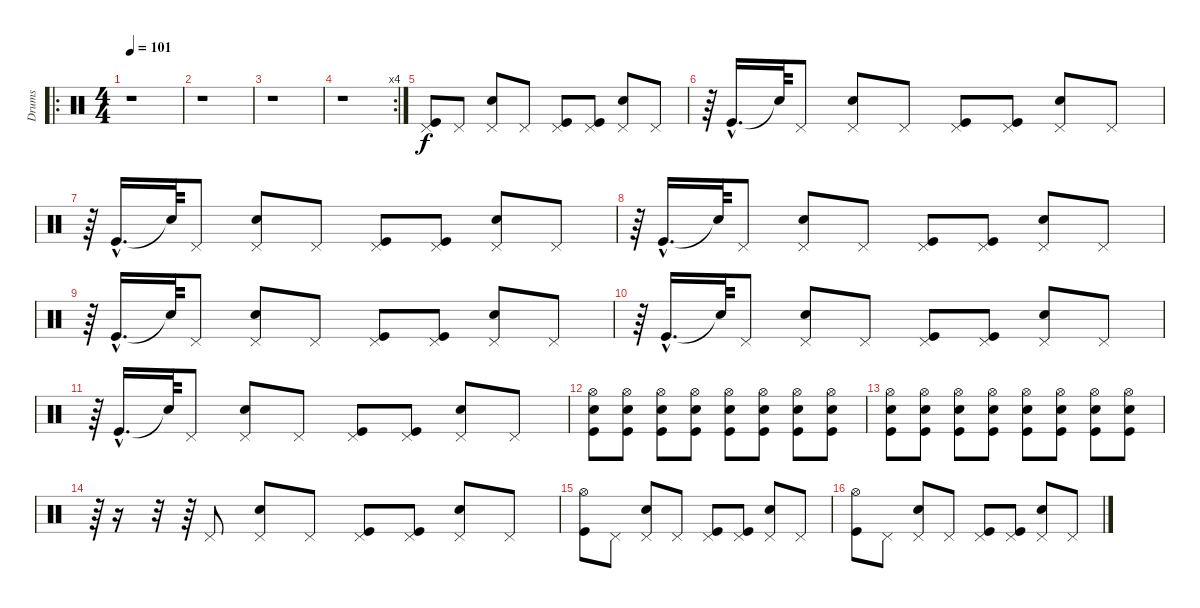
\track ("Drums" "Drums") {instrument percussion}
\staff {score}
\articulation defaults
\ro
\ts (4 4)
\tempo 101
\clef neutral
\ks c
r.1{dy f} |
r.1 |
r.1 |
\rc 4
r.1 |
("Kick (hit)" "Pedal Hi-Hat (hit)").8 "Pedal Hi-Hat (hit)".8 ("Electric Snare (hit)" "Pedal Hi-Hat (hit)").8 "Pedal Hi-Hat (hit)".8 ("Kick (hit)" "Pedal Hi-Hat (hit)").8 ("Kick (hit)" "Pedal Hi-Hat (hit)").8 ("Electric Snare (hit)" "Pedal Hi-Hat (hit)").8 "Pedal Hi-Hat (hit)".8 |
r.64 "Kick (hit)"{hac}.16{d} "Snare (hit)"{t}.64 "Pedal Hi-Hat (hit)".8 ("Electric Snare (hit)" "Pedal Hi-Hat (hit)").8 "Pedal Hi-Hat (hit)".8 ("Kick (hit)" "Pedal Hi-Hat (hit)").8 ("Kick (hit)" "Pedal Hi-Hat (hit)").8 ("Electric Snare (hit)" "Pedal Hi-Hat (hit)").8 "Pedal Hi-Hat (hit)".8 |
r.64 "Kick (hit)"{hac}.16{d} "Snare (hit)"{t}.64 "Pedal Hi-Hat (hit)".8 ("Electric Snare (hit)" "Pedal Hi-Hat (hit)").8 "Pedal Hi-Hat (hit)".8 ("Kick (hit)" "Pedal Hi-Hat (hit)").8 ("Kick (hit)" "Pedal Hi-Hat (hit)").8 ("Electric Snare (hit)" "Pedal Hi-Hat (hit)").8 "Pedal Hi-Hat (hit)".8 |
r.64 "Kick (hit)"{hac}.16{d} "Snare (hit)"{t}.64 "Pedal Hi-Hat (hit)".8 ("Electric Snare (hit)" "Pedal Hi-Hat (hit)").8 "Pedal Hi-Hat (hit)".8 ("Kick (hit)" "Pedal Hi-Hat (hit)").8 ("Kick (hit)" "Pedal Hi-Hat (hit)").8 ("Electric Snare (hit)" "Pedal Hi-Hat (hit)").8 "Pedal Hi-Hat (hit)".8 |
r.64 "Kick (hit)"{hac}.16{d} "Snare (hit)"{t}.64 "Pedal Hi-Hat (hit)".8 ("Electric Snare (hit)" "Pedal Hi-Hat (hit)").8 "Pedal Hi-Hat (hit)".8 ("Kick (hit)" "Pedal Hi-Hat (hit)").8 ("Kick (hit)" "Pedal Hi-Hat (hit)").8 ("Electric Snare (hit)" "Pedal Hi-Hat (hit)").8 "Pedal Hi-Hat (hit)".8 |
r.64 "Kick (hit)"{hac}.16{d} "Snare (hit)"{t}.64 "Pedal Hi-Hat (hit)".8 ("Electric Snare (hit)" "Pedal Hi-Hat (hit)").8 "Pedal Hi-Hat (hit)".8 ("Kick (hit)" "Pedal Hi-Hat (hit)").8 ("Kick (hit)" "Pedal Hi-Hat (hit)").8 ("Electric Snare (hit)" "Pedal Hi-Hat (hit)").8 "Pedal Hi-Hat (hit)".8 |
r.64 "Kick (hit)"{hac}.16{d} "Snare (hit)"{t}.64 "Pedal Hi-Hat (hit)".8 ("Electric Snare (hit)" "Pedal Hi-Hat (hit)").8 "Pedal Hi-Hat (hit)".8 ("Kick (hit)" "Pedal Hi-Hat (hit)").8 ("Kick (hit)" "Pedal Hi-Hat (hit)").8 ("Electric Snare (hit)" "Pedal Hi-Hat (hit)").8 "Pedal Hi-Hat (hit)".8 |
("Kick (hit)" "Electric Snare (hit)" "Hi-Hat (open)").8 ("Kick (hit)" "Electric Snare (hit)" "Hi-Hat (open)").8 ("Kick (hit)" "Electric Snare (hit)" "Hi-Hat (open)").8 ("Kick (hit)" "Electric Snare (hit)" "Hi-Hat (open)").8 ("Kick (hit)" "Electric Snare (hit)" "Hi-Hat (open)").8 ("Kick (hit)" "Electric Snare (hit)" "Hi-Hat (open)").8 ("Kick (hit)" "Electric Snare (hit)" "Hi-Hat (open)").8 ("Kick (hit)" "Electric Snare (hit)" "Hi-Hat (open)").8 |
("Kick (hit)" "Electric Snare (hit)" "Hi-Hat (open)").8 ("Kick (hit)" "Electric Snare (hit)" "Hi-Hat (open)").8 ("Kick (hit)" "Electric Snare (hit)" "Hi-Hat (open)").8 ("Kick (hit)" "Electric Snare (hit)" "Hi-Hat (open)").8 ("Kick (hit)" "Electric Snare (hit)" "Hi-Hat (open)").8 ("Kick (hit)" "Electric Snare (hit)" "Hi-Hat (open)").8 ("Kick (hit)" "Electric Snare (hit)" "Hi-Hat (open)").8 ("Kick (hit)" "Electric Snare (hit)" "Hi-Hat (open)").8 |
r.64 r.16 r.32 r.64 "Pedal Hi-Hat (hit)".8 ("Electric Snare (hit)" "Pedal Hi-Hat (hit)").8 "Pedal Hi-Hat (hit)".8 ("Kick (hit)" "Pedal Hi-Hat (hit)").8 ("Kick (hit)" "Pedal Hi-Hat (hit)").8 ("Electric Snare (hit)" "Pedal Hi-Hat (hit)").8 "Pedal Hi-Hat (hit)".8 |
("Kick (hit)" "Hi-Hat (open)").8 "Pedal Hi-Hat (hit)".8 ("Electric Snare (hit)" "Pedal Hi-Hat (hit)").8 "Pedal Hi-Hat (hit)".8 ("Kick (hit)" "Pedal Hi-Hat (hit)").8 ("Kick (hit)" "Pedal Hi-Hat (hit)").8 ("Electric Snare (hit)" "Pedal Hi-Hat (hit)").8 "Pedal Hi-Hat (hit)".8 |
("Kick (hit)" "Hi-Hat (open)").8 "Pedal Hi-Hat (hit)".8 ("Electric Snare (hit)" "Pedal Hi-Hat (hit)").8 "Pedal Hi-Hat (hit)".8 ("Kick (hit)" "Pedal Hi-Hat (hit)").8 ("Kick (hit)" "Pedal Hi-Hat (hit)").8 ("Electric Snare (hit)" "Pedal Hi-Hat (hit)").8 "Pedal Hi-Hat (hit)".8
